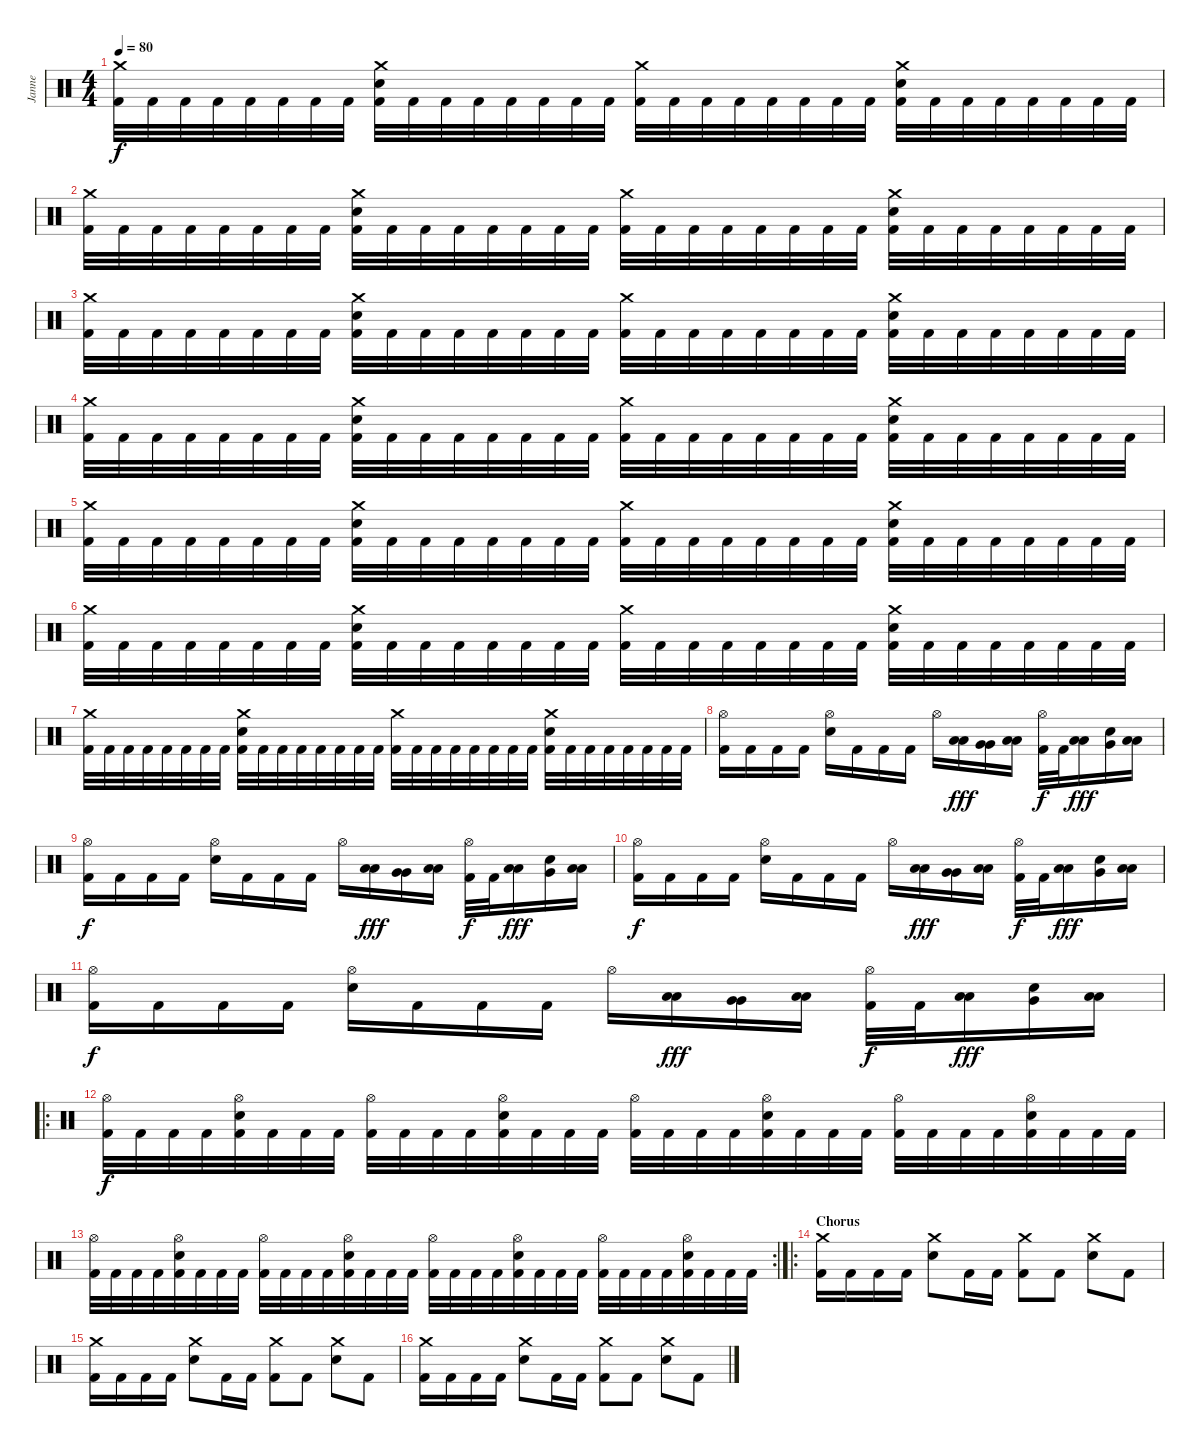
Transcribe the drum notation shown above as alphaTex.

\track ("Janne" "Janne") {instrument percussion}
\staff {score}
\articulation defaults
\ts (4 4)
\tempo 80
\clef neutral
\ks c
("Crash medium (hit)" "Kick (hit) 2").32{dy f} "Kick (hit) 2".32 "Kick (hit) 2".32 "Kick (hit) 2".32 "Kick (hit) 2".32 "Kick (hit) 2".32 "Kick (hit) 2".32 "Kick (hit) 2".32 ("Crash medium (hit)" "Electric Snare (hit)" "Kick (hit) 2").32 "Kick (hit) 2".32 "Kick (hit) 2".32 "Kick (hit) 2".32 "Kick (hit) 2".32 "Kick (hit) 2".32 "Kick (hit) 2".32 "Kick (hit) 2".32 ("Crash medium (hit)" "Kick (hit) 2").32 "Kick (hit) 2".32 "Kick (hit) 2".32 "Kick (hit) 2".32 "Kick (hit) 2".32 "Kick (hit) 2".32 "Kick (hit) 2".32 "Kick (hit) 2".32 ("Crash medium (hit)" "Electric Snare (hit)" "Kick (hit) 2").32 "Kick (hit) 2".32 "Kick (hit) 2".32 "Kick (hit) 2".32 "Kick (hit) 2".32 "Kick (hit) 2".32 "Kick (hit) 2".32 "Kick (hit) 2".32 |
("Crash medium (hit)" "Kick (hit) 2").32 "Kick (hit) 2".32 "Kick (hit) 2".32 "Kick (hit) 2".32 "Kick (hit) 2".32 "Kick (hit) 2".32 "Kick (hit) 2".32 "Kick (hit) 2".32 ("Crash medium (hit)" "Electric Snare (hit)" "Kick (hit) 2").32 "Kick (hit) 2".32 "Kick (hit) 2".32 "Kick (hit) 2".32 "Kick (hit) 2".32 "Kick (hit) 2".32 "Kick (hit) 2".32 "Kick (hit) 2".32 ("Crash medium (hit)" "Kick (hit) 2").32 "Kick (hit) 2".32 "Kick (hit) 2".32 "Kick (hit) 2".32 "Kick (hit) 2".32 "Kick (hit) 2".32 "Kick (hit) 2".32 "Kick (hit) 2".32 ("Crash medium (hit)" "Electric Snare (hit)" "Kick (hit) 2").32 "Kick (hit) 2".32 "Kick (hit) 2".32 "Kick (hit) 2".32 "Kick (hit) 2".32 "Kick (hit) 2".32 "Kick (hit) 2".32 "Kick (hit) 2".32 |
("Crash medium (hit)" "Kick (hit) 2").32 "Kick (hit) 2".32 "Kick (hit) 2".32 "Kick (hit) 2".32 "Kick (hit) 2".32 "Kick (hit) 2".32 "Kick (hit) 2".32 "Kick (hit) 2".32 ("Crash medium (hit)" "Electric Snare (hit)" "Kick (hit) 2").32 "Kick (hit) 2".32 "Kick (hit) 2".32 "Kick (hit) 2".32 "Kick (hit) 2".32 "Kick (hit) 2".32 "Kick (hit) 2".32 "Kick (hit) 2".32 ("Crash medium (hit)" "Kick (hit) 2").32 "Kick (hit) 2".32 "Kick (hit) 2".32 "Kick (hit) 2".32 "Kick (hit) 2".32 "Kick (hit) 2".32 "Kick (hit) 2".32 "Kick (hit) 2".32 ("Crash medium (hit)" "Electric Snare (hit)" "Kick (hit) 2").32 "Kick (hit) 2".32 "Kick (hit) 2".32 "Kick (hit) 2".32 "Kick (hit) 2".32 "Kick (hit) 2".32 "Kick (hit) 2".32 "Kick (hit) 2".32 |
("Crash medium (hit)" "Kick (hit) 2").32 "Kick (hit) 2".32 "Kick (hit) 2".32 "Kick (hit) 2".32 "Kick (hit) 2".32 "Kick (hit) 2".32 "Kick (hit) 2".32 "Kick (hit) 2".32 ("Crash medium (hit)" "Electric Snare (hit)" "Kick (hit) 2").32 "Kick (hit) 2".32 "Kick (hit) 2".32 "Kick (hit) 2".32 "Kick (hit) 2".32 "Kick (hit) 2".32 "Kick (hit) 2".32 "Kick (hit) 2".32 ("Crash medium (hit)" "Kick (hit) 2").32 "Kick (hit) 2".32 "Kick (hit) 2".32 "Kick (hit) 2".32 "Kick (hit) 2".32 "Kick (hit) 2".32 "Kick (hit) 2".32 "Kick (hit) 2".32 ("Crash medium (hit)" "Electric Snare (hit)" "Kick (hit) 2").32 "Kick (hit) 2".32 "Kick (hit) 2".32 "Kick (hit) 2".32 "Kick (hit) 2".32 "Kick (hit) 2".32 "Kick (hit) 2".32 "Kick (hit) 2".32 |
("Crash medium (hit)" "Kick (hit) 2").32 "Kick (hit) 2".32 "Kick (hit) 2".32 "Kick (hit) 2".32 "Kick (hit) 2".32 "Kick (hit) 2".32 "Kick (hit) 2".32 "Kick (hit) 2".32 ("Crash medium (hit)" "Electric Snare (hit)" "Kick (hit) 2").32 "Kick (hit) 2".32 "Kick (hit) 2".32 "Kick (hit) 2".32 "Kick (hit) 2".32 "Kick (hit) 2".32 "Kick (hit) 2".32 "Kick (hit) 2".32 ("Crash medium (hit)" "Kick (hit) 2").32 "Kick (hit) 2".32 "Kick (hit) 2".32 "Kick (hit) 2".32 "Kick (hit) 2".32 "Kick (hit) 2".32 "Kick (hit) 2".32 "Kick (hit) 2".32 ("Crash medium (hit)" "Electric Snare (hit)" "Kick (hit) 2").32 "Kick (hit) 2".32 "Kick (hit) 2".32 "Kick (hit) 2".32 "Kick (hit) 2".32 "Kick (hit) 2".32 "Kick (hit) 2".32 "Kick (hit) 2".32 |
("Crash medium (hit)" "Kick (hit) 2").32 "Kick (hit) 2".32 "Kick (hit) 2".32 "Kick (hit) 2".32 "Kick (hit) 2".32 "Kick (hit) 2".32 "Kick (hit) 2".32 "Kick (hit) 2".32 ("Crash medium (hit)" "Electric Snare (hit)" "Kick (hit) 2").32 "Kick (hit) 2".32 "Kick (hit) 2".32 "Kick (hit) 2".32 "Kick (hit) 2".32 "Kick (hit) 2".32 "Kick (hit) 2".32 "Kick (hit) 2".32 ("Crash medium (hit)" "Kick (hit) 2").32 "Kick (hit) 2".32 "Kick (hit) 2".32 "Kick (hit) 2".32 "Kick (hit) 2".32 "Kick (hit) 2".32 "Kick (hit) 2".32 "Kick (hit) 2".32 ("Crash medium (hit)" "Electric Snare (hit)" "Kick (hit) 2").32 "Kick (hit) 2".32 "Kick (hit) 2".32 "Kick (hit) 2".32 "Kick (hit) 2".32 "Kick (hit) 2".32 "Kick (hit) 2".32 "Kick (hit) 2".32 |
("Crash medium (hit)" "Kick (hit) 2").32 "Kick (hit) 2".32 "Kick (hit) 2".32 "Kick (hit) 2".32 "Kick (hit) 2".32 "Kick (hit) 2".32 "Kick (hit) 2".32 "Kick (hit) 2".32 ("Crash medium (hit)" "Electric Snare (hit)" "Kick (hit) 2").32 "Kick (hit) 2".32 "Kick (hit) 2".32 "Kick (hit) 2".32 "Kick (hit) 2".32 "Kick (hit) 2".32 "Kick (hit) 2".32 "Kick (hit) 2".32 ("Crash medium (hit)" "Kick (hit) 2").32 "Kick (hit) 2".32 "Kick (hit) 2".32 "Kick (hit) 2".32 "Kick (hit) 2".32 "Kick (hit) 2".32 "Kick (hit) 2".32 "Kick (hit) 2".32 ("Crash medium (hit)" "Electric Snare (hit)" "Kick (hit) 2").32 "Kick (hit) 2".32 "Kick (hit) 2".32 "Kick (hit) 2".32 "Kick (hit) 2".32 "Kick (hit) 2".32 "Kick (hit) 2".32 "Kick (hit) 2".32 |
("Hi-Hat (open)" "Kick (hit) 2").16 "Kick (hit) 2".16 "Kick (hit) 2".16 "Kick (hit) 2".16 ("Hi-Hat (open)" "Electric Snare (hit)").16 "Kick (hit) 2".16 "Kick (hit) 2".16 "Kick (hit) 2".16 "Hi-Hat (open)".16 ("Low Tom (hit)" "Low Tom (hit)").16{dy fff} ("Very Low Tom (hit)" "Very Low Tom (hit)").16 ("Low Floor Tom (hit)" "Low Floor Tom (hit)").16 ("Hi-Hat (open)" "Kick (hit) 2").32{dy f} "Kick (hit) 2".32 ("Low Tom (hit)" "Low Tom (hit)").16{dy fff} ("Snare (hit)" "Very Low Tom (hit)").16 ("Low Floor Tom (hit)" "Low Floor Tom (hit)").16 |
("Hi-Hat (open)" "Kick (hit) 2").16{dy f} "Kick (hit) 2".16 "Kick (hit) 2".16 "Kick (hit) 2".16 ("Hi-Hat (open)" "Electric Snare (hit)").16 "Kick (hit) 2".16 "Kick (hit) 2".16 "Kick (hit) 2".16 "Hi-Hat (open)".16 ("Low Tom (hit)" "Low Tom (hit)").16{dy fff} ("Very Low Tom (hit)" "Very Low Tom (hit)").16 ("Low Floor Tom (hit)" "Low Floor Tom (hit)").16 ("Hi-Hat (open)" "Kick (hit) 2").32{dy f} "Kick (hit) 2".32 ("Low Tom (hit)" "Low Tom (hit)").16{dy fff} ("Snare (hit)" "Very Low Tom (hit)").16 ("Low Floor Tom (hit)" "Low Floor Tom (hit)").16 |
("Hi-Hat (open)" "Kick (hit) 2").16{dy f} "Kick (hit) 2".16 "Kick (hit) 2".16 "Kick (hit) 2".16 ("Hi-Hat (open)" "Electric Snare (hit)").16 "Kick (hit) 2".16 "Kick (hit) 2".16 "Kick (hit) 2".16 "Hi-Hat (open)".16 ("Low Tom (hit)" "Low Tom (hit)").16{dy fff} ("Very Low Tom (hit)" "Very Low Tom (hit)").16 ("Low Floor Tom (hit)" "Low Floor Tom (hit)").16 ("Hi-Hat (open)" "Kick (hit) 2").32{dy f} "Kick (hit) 2".32 ("Low Tom (hit)" "Low Tom (hit)").16{dy fff} ("Snare (hit)" "Very Low Tom (hit)").16 ("Low Floor Tom (hit)" "Low Floor Tom (hit)").16 |
("Hi-Hat (open)" "Kick (hit) 2").16{dy f} "Kick (hit) 2".16 "Kick (hit) 2".16 "Kick (hit) 2".16 ("Hi-Hat (open)" "Electric Snare (hit)").16 "Kick (hit) 2".16 "Kick (hit) 2".16 "Kick (hit) 2".16 "Hi-Hat (open)".16 ("Low Tom (hit)" "Low Tom (hit)").16{dy fff} ("Very Low Tom (hit)" "Very Low Tom (hit)").16 ("Low Floor Tom (hit)" "Low Floor Tom (hit)").16 ("Hi-Hat (open)" "Kick (hit) 2").32{dy f} "Kick (hit) 2".32 ("Low Tom (hit)" "Low Tom (hit)").16{dy fff} ("Snare (hit)" "Very Low Tom (hit)").16 ("Low Floor Tom (hit)" "Low Floor Tom (hit)").16 |
\ro
("Hi-Hat (open)" "Kick (hit) 2").32{dy f} "Kick (hit) 2".32 "Kick (hit) 2".32 "Kick (hit) 2".32 ("Hi-Hat (open)" "Electric Snare (hit)" "Kick (hit) 2").32 "Kick (hit) 2".32 "Kick (hit) 2".32 "Kick (hit) 2".32 ("Hi-Hat (open)" "Kick (hit) 2").32 "Kick (hit) 2".32 "Kick (hit) 2".32 "Kick (hit) 2".32 ("Hi-Hat (open)" "Electric Snare (hit)" "Kick (hit) 2").32 "Kick (hit) 2".32 "Kick (hit) 2".32 "Kick (hit) 2".32 ("Hi-Hat (open)" "Kick (hit) 2").32 "Kick (hit) 2".32 "Kick (hit) 2".32 "Kick (hit) 2".32 ("Hi-Hat (open)" "Electric Snare (hit)" "Kick (hit) 2").32 "Kick (hit) 2".32 "Kick (hit) 2".32 "Kick (hit) 2".32 ("Hi-Hat (open)" "Kick (hit) 2").32 "Kick (hit) 2".32 "Kick (hit) 2".32 "Kick (hit) 2".32 ("Hi-Hat (open)" "Electric Snare (hit)" "Kick (hit) 2").32 "Kick (hit) 2".32 "Kick (hit) 2".32 "Kick (hit) 2".32 |
\rc 2
("Hi-Hat (open)" "Kick (hit) 2").32 "Kick (hit) 2".32 "Kick (hit) 2".32 "Kick (hit) 2".32 ("Hi-Hat (open)" "Electric Snare (hit)" "Kick (hit) 2").32 "Kick (hit) 2".32 "Kick (hit) 2".32 "Kick (hit) 2".32 ("Hi-Hat (open)" "Kick (hit) 2").32 "Kick (hit) 2".32 "Kick (hit) 2".32 "Kick (hit) 2".32 ("Hi-Hat (open)" "Electric Snare (hit)" "Kick (hit) 2").32 "Kick (hit) 2".32 "Kick (hit) 2".32 "Kick (hit) 2".32 ("Hi-Hat (open)" "Kick (hit) 2").32 "Kick (hit) 2".32 "Kick (hit) 2".32 "Kick (hit) 2".32 ("Hi-Hat (open)" "Electric Snare (hit)" "Kick (hit) 2").32 "Kick (hit) 2".32 "Kick (hit) 2".32 "Kick (hit) 2".32 ("Hi-Hat (open)" "Kick (hit) 2").32 "Kick (hit) 2".32 "Kick (hit) 2".32 "Kick (hit) 2".32 ("Hi-Hat (open)" "Electric Snare (hit)" "Kick (hit) 2").32 "Kick (hit) 2".32 "Kick (hit) 2".32 "Kick (hit) 2".32 |
\ro
\section ("" "Chorus")
("Crash medium (hit)" "Kick (hit) 2").16 "Kick (hit) 2".16 "Kick (hit) 2".16 "Kick (hit) 2".16 ("Crash medium (hit)" "Electric Snare (hit)").8 "Kick (hit) 2".16 "Kick (hit) 2".16 ("Crash medium (hit)" "Kick (hit) 2").8 "Kick (hit) 2".8 ("Crash medium (hit)" "Electric Snare (hit)").8 "Kick (hit) 2".8 |
("Crash medium (hit)" "Kick (hit) 2").16 "Kick (hit) 2".16 "Kick (hit) 2".16 "Kick (hit) 2".16 ("Crash medium (hit)" "Electric Snare (hit)").8 "Kick (hit) 2".16 "Kick (hit) 2".16 ("Crash medium (hit)" "Kick (hit) 2").8 "Kick (hit) 2".8 ("Crash medium (hit)" "Electric Snare (hit)").8 "Kick (hit) 2".8 |
("Crash medium (hit)" "Kick (hit) 2").16 "Kick (hit) 2".16 "Kick (hit) 2".16 "Kick (hit) 2".16 ("Crash medium (hit)" "Electric Snare (hit)").8 "Kick (hit) 2".16 "Kick (hit) 2".16 ("Crash medium (hit)" "Kick (hit) 2").8 "Kick (hit) 2".8 ("Crash medium (hit)" "Electric Snare (hit)").8 "Kick (hit) 2".8
